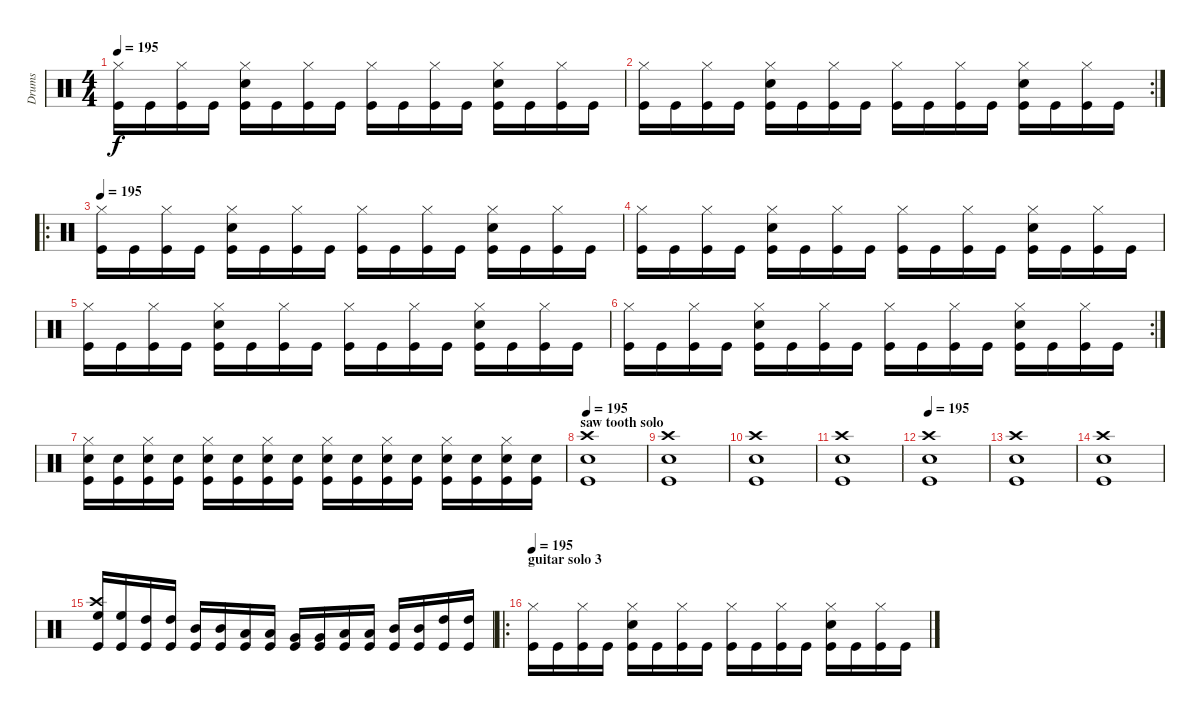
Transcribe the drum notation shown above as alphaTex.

\track ("Drums" "Drums") {instrument percussion}
\staff {score}
\articulation defaults
\ts (4 4)
\tempo 195
\clef neutral
\ks c
("Hi-Hat (closed)" "Kick (hit)").16{dy f} "Kick (hit)".16 ("Hi-Hat (closed)" "Kick (hit)").16 "Kick (hit)".16 ("Hi-Hat (closed)" "Snare (hit) 2" "Kick (hit)").16 "Kick (hit)".16 ("Hi-Hat (closed)" "Kick (hit)").16 "Kick (hit)".16 ("Hi-Hat (closed)" "Kick (hit)").16 "Kick (hit)".16 ("Hi-Hat (closed)" "Kick (hit)").16 "Kick (hit)".16 ("Hi-Hat (closed)" "Snare (hit) 2" "Kick (hit)").16 "Kick (hit)".16 ("Hi-Hat (closed)" "Kick (hit)").16 "Kick (hit)".16 |
\rc 2
("Hi-Hat (closed)" "Kick (hit)").16 "Kick (hit)".16 ("Hi-Hat (closed)" "Kick (hit)").16 "Kick (hit)".16 ("Hi-Hat (closed)" "Snare (hit) 2" "Kick (hit)").16 "Kick (hit)".16 ("Hi-Hat (closed)" "Kick (hit)").16 "Kick (hit)".16 ("Hi-Hat (closed)" "Kick (hit)").16 "Kick (hit)".16 ("Hi-Hat (closed)" "Kick (hit)").16 "Kick (hit)".16 ("Hi-Hat (closed)" "Snare (hit) 2" "Kick (hit)").16 "Kick (hit)".16 ("Hi-Hat (closed)" "Kick (hit)").16 "Kick (hit)".16 |
\ro
\tempo 195
("Hi-Hat (closed)" "Kick (hit)").16 "Kick (hit)".16 ("Hi-Hat (closed)" "Kick (hit)").16 "Kick (hit)".16 ("Hi-Hat (closed)" "Snare (hit) 2" "Kick (hit)").16 "Kick (hit)".16 ("Hi-Hat (closed)" "Kick (hit)").16 "Kick (hit)".16 ("Hi-Hat (closed)" "Kick (hit)").16 "Kick (hit)".16 ("Hi-Hat (closed)" "Kick (hit)").16 "Kick (hit)".16 ("Hi-Hat (closed)" "Snare (hit) 2" "Kick (hit)").16 "Kick (hit)".16 ("Hi-Hat (closed)" "Kick (hit)").16 "Kick (hit)".16 |
("Hi-Hat (closed)" "Kick (hit)").16 "Kick (hit)".16 ("Hi-Hat (closed)" "Kick (hit)").16 "Kick (hit)".16 ("Hi-Hat (closed)" "Snare (hit) 2" "Kick (hit)").16 "Kick (hit)".16 ("Hi-Hat (closed)" "Kick (hit)").16 "Kick (hit)".16 ("Hi-Hat (closed)" "Kick (hit)").16 "Kick (hit)".16 ("Hi-Hat (closed)" "Kick (hit)").16 "Kick (hit)".16 ("Hi-Hat (closed)" "Snare (hit) 2" "Kick (hit)").16 "Kick (hit)".16 ("Hi-Hat (closed)" "Kick (hit)").16 "Kick (hit)".16 |
("Hi-Hat (closed)" "Kick (hit)").16 "Kick (hit)".16 ("Hi-Hat (closed)" "Kick (hit)").16 "Kick (hit)".16 ("Hi-Hat (closed)" "Snare (hit) 2" "Kick (hit)").16 "Kick (hit)".16 ("Hi-Hat (closed)" "Kick (hit)").16 "Kick (hit)".16 ("Hi-Hat (closed)" "Kick (hit)").16 "Kick (hit)".16 ("Hi-Hat (closed)" "Kick (hit)").16 "Kick (hit)".16 ("Hi-Hat (closed)" "Snare (hit) 2" "Kick (hit)").16 "Kick (hit)".16 ("Hi-Hat (closed)" "Kick (hit)").16 "Kick (hit)".16 |
\rc 2
("Hi-Hat (closed)" "Kick (hit)").16 "Kick (hit)".16 ("Hi-Hat (closed)" "Kick (hit)").16 "Kick (hit)".16 ("Hi-Hat (closed)" "Snare (hit) 2" "Kick (hit)").16 "Kick (hit)".16 ("Hi-Hat (closed)" "Kick (hit)").16 "Kick (hit)".16 ("Hi-Hat (closed)" "Kick (hit)").16 "Kick (hit)".16 ("Hi-Hat (closed)" "Kick (hit)").16 "Kick (hit)".16 ("Hi-Hat (closed)" "Snare (hit) 2" "Kick (hit)").16 "Kick (hit)".16 ("Hi-Hat (closed)" "Kick (hit)").16 "Kick (hit)".16 |
("Hi-Hat (closed)" "Snare (hit)" "Kick (hit)").16 ("Snare (hit)" "Kick (hit)").16 ("Hi-Hat (closed)" "Snare (hit)" "Kick (hit)").16 ("Snare (hit)" "Kick (hit)").16 ("Hi-Hat (closed)" "Snare (hit)" "Kick (hit)").16 ("Snare (hit)" "Kick (hit)").16 ("Hi-Hat (closed)" "Snare (hit)" "Kick (hit)").16 ("Snare (hit)" "Kick (hit)").16 ("Hi-Hat (closed)" "Snare (hit)" "Kick (hit)").16 ("Snare (hit)" "Kick (hit)").16 ("Hi-Hat (closed)" "Snare (hit)" "Kick (hit)").16 ("Snare (hit)" "Kick (hit)").16 ("Hi-Hat (closed)" "Snare (hit)" "Kick (hit)").16 ("Snare (hit)" "Kick (hit)").16 ("Hi-Hat (closed)" "Snare (hit) 2" "Kick (hit)").16 ("Snare (hit) 2" "Kick (hit)").16 |
\section ("" "saw tooth solo")
\tempo 195
("Crash high (hit)" "Snare (hit) 2" "Kick (hit)").1 |
("Crash high (hit)" "Snare (hit) 2" "Kick (hit)").1 |
("Crash high (hit)" "Snare (hit) 2" "Kick (hit)").1 |
("Crash high (hit)" "Snare (hit) 2" "Kick (hit)").1 |
\tempo 195
("Crash high (hit)" "Snare (hit) 2" "Kick (hit)").1 |
("Crash high (hit)" "Snare (hit) 2" "Kick (hit)").1 |
("Crash high (hit)" "Snare (hit) 2" "Kick (hit)").1 |
("Crash high (hit)" "High Floor Tom (hit)" "Kick (hit)").16 ("High Floor Tom (hit)" "Kick (hit)").16 ("High Tom (hit)" "Kick (hit)").16 ("High Tom (hit)" "Kick (hit)").16 ("Mid Tom (hit)" "Kick (hit)").16 ("Mid Tom (hit)" "Kick (hit)").16 ("Low Tom (hit)" "Kick (hit)").16 ("Low Tom (hit)" "Kick (hit)").16 ("Very Low Tom (hit)" "Kick (hit)").16 ("Very Low Tom (hit)" "Kick (hit)").16 ("Low Tom (hit)" "Kick (hit)").16 ("Low Tom (hit)" "Kick (hit)").16 ("Mid Tom (hit)" "Kick (hit)").16 ("Mid Tom (hit)" "Kick (hit)").16 ("High Tom (hit)" "Kick (hit)").16 ("High Tom (hit)" "Kick (hit)").16 |
\ro
\section ("" "guitar solo 3")
\tempo 195
("Hi-Hat (closed)" "Kick (hit)").16 "Kick (hit)".16 ("Hi-Hat (closed)" "Kick (hit)").16 "Kick (hit)".16 ("Hi-Hat (closed)" "Snare (hit) 2" "Kick (hit)").16 "Kick (hit)".16 ("Hi-Hat (closed)" "Kick (hit)").16 "Kick (hit)".16 ("Hi-Hat (closed)" "Kick (hit)").16 "Kick (hit)".16 ("Hi-Hat (closed)" "Kick (hit)").16 "Kick (hit)".16 ("Hi-Hat (closed)" "Snare (hit) 2" "Kick (hit)").16 "Kick (hit)".16 ("Hi-Hat (closed)" "Kick (hit)").16 "Kick (hit)".16
